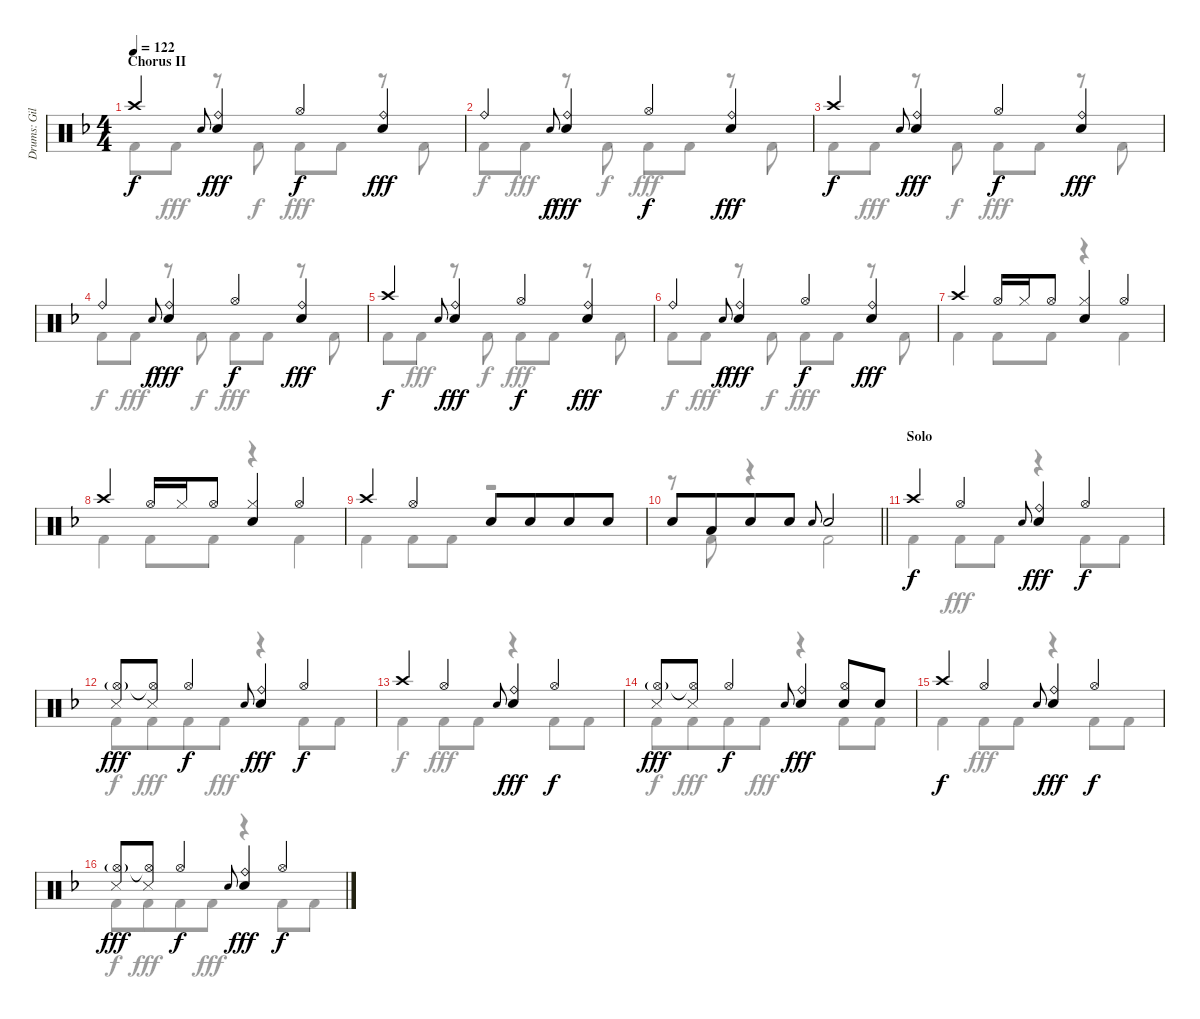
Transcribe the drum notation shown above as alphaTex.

\track ("Drums: Gil" "Drums: Gil") {instrument percussion}
\staff {score}
\articulation defaults
\voice
\ts (4 4)
\section ("" "Chorus II")
\tempo 122
\clef neutral
\ks f "Crash high (hit)".4{dy f} "Electric Snare (hit)".8{gr onbeat}
("Ride (bell)" "Snare (hit) 2").4{dy fff} "Hi-Hat (open)".4{dy f} ("Ride (bell)" "Snare (hit) 2").4{dy fff} |
"Ride (bell)".4 "Electric Snare (hit)".8{gr onbeat dy f} ("Ride (bell)" "Snare (hit) 2").4{dy fff} "Hi-Hat (open)".4{dy f} ("Ride (bell)" "Snare (hit) 2").4{dy fff} |
"Crash high (hit)".4{dy f} "Electric Snare (hit)".8{gr onbeat} ("Ride (bell)" "Snare (hit) 2").4{dy fff} "Hi-Hat (open)".4{dy f} ("Ride (bell)" "Snare (hit) 2").4{dy fff} |
"Ride (bell)".4 "Electric Snare (hit)".8{gr onbeat dy f} ("Ride (bell)" "Snare (hit) 2").4{dy fff} "Hi-Hat (open)".4{dy f} ("Ride (bell)" "Snare (hit) 2").4{dy fff} |
"Crash high (hit)".4{dy f} "Electric Snare (hit)".8{gr onbeat} ("Ride (bell)" "Snare (hit) 2").4{dy fff} "Hi-Hat (open)".4{dy f} ("Ride (bell)" "Snare (hit) 2").4{dy fff} |
"Ride (bell)".4 "Electric Snare (hit)".8{gr onbeat dy f} ("Ride (bell)" "Snare (hit) 2").4{dy fff} "Hi-Hat (open)".4{dy f} ("Ride (bell)" "Snare (hit) 2").4{dy fff} |
"Crash high (hit)".4 "Hi-Hat (open)".16 "Hi-Hat (closed)".16 "Hi-Hat (open)".8 ("Hi-Hat (closed)" "Snare (hit) 2").4 "Hi-Hat (open)".4 |
"Crash high (hit)".4 "Hi-Hat (open)".16 "Hi-Hat (closed)".16 "Hi-Hat (open)".8 ("Hi-Hat (closed)" "Snare (hit) 2").4 "Hi-Hat (open)".4 |
"Crash high (hit)".4 "Hi-Hat (open)".4 "Snare (hit) 2".8 "Snare (hit) 2".8{beam merge} "Snare (hit) 2".8 "Snare (hit) 2".8 |
\barLineRight lightlight "Snare (hit) 2".8 "Low Tom (hit)".8{beam merge} "Snare (hit) 2".8 "Snare (hit) 2".8 "Electric Snare (hit)".8{gr onbeat} "Snare (hit) 2".2
|
\section ("" "Solo")
"Crash high (hit)".4{dy f} "Hi-Hat (open)".4 "Electric Snare (hit)".8{gr onbeat} ("Ride (bell)" "Snare (hit) 2").4{dy fff} "Hi-Hat (open)".4{dy f} |
("Hi-Hat (open)"{g} "Snare (side stick) 3").8{dy fff} ("Hi-Hat (open)"{t} "Snare (side stick) 3").8 "Hi-Hat (open)".4{dy f} "Electric Snare (hit)".8{gr onbeat} ("Ride (bell)" "Snare (hit) 2").4{dy fff} "Hi-Hat (open)".4{dy f} |
"Crash high (hit)".4 "Hi-Hat (open)".4 "Electric Snare (hit)".8{gr onbeat} ("Ride (bell)" "Snare (hit) 2").4{dy fff} "Hi-Hat (open)".4{dy f} |
("Hi-Hat (open)"{g} "Snare (side stick) 3").8{dy fff} ("Hi-Hat (open)"{t} "Snare (side stick) 3").8 "Hi-Hat (open)".4{dy f} "Electric Snare (hit)".8{gr onbeat} ("Ride (bell)" "Snare (hit) 2").4{dy fff} ("Hi-Hat (open)" "Snare (hit) 2").8 "Snare (hit) 2".8 |
"Crash high (hit)".4{dy f} "Hi-Hat (open)".4 "Electric Snare (hit)".8{gr onbeat} ("Ride (bell)" "Snare (hit) 2").4{dy fff} "Hi-Hat (open)".4{dy f} |
("Hi-Hat (open)"{g} "Snare (side stick) 3").8{dy fff} ("Hi-Hat (open)"{t} "Snare (side stick) 3").8 "Hi-Hat (open)".4{dy f} "Electric Snare (hit)".8{gr onbeat} ("Ride (bell)" "Snare (hit) 2").4{dy fff} "Hi-Hat (open)".4{dy f}
\voice
\clef neutral
\ottava regular
\simile none
\ks f "Kick (hit) 2".8{dy f} "Kick (hit) 2".8{dy fff}
r.8 "Kick (hit) 2".8{dy f} "Kick (hit) 2".8{dy fff} "Kick (hit) 2".8 r.8 "Kick (hit) 2".8 |
"Kick (hit) 2".8{dy f} "Kick (hit) 2".8{dy fff} r.8 "Kick (hit) 2".8{dy f} "Kick (hit) 2".8{dy fff} "Kick (hit) 2".8 r.8 "Kick (hit) 2".8 |
"Kick (hit) 2".8{dy f} "Kick (hit) 2".8{dy fff} r.8 "Kick (hit) 2".8{dy f} "Kick (hit) 2".8{dy fff} "Kick (hit) 2".8 r.8 "Kick (hit) 2".8 |
"Kick (hit) 2".8{dy f} "Kick (hit) 2".8{dy fff} r.8 "Kick (hit) 2".8{dy f} "Kick (hit) 2".8{dy fff} "Kick (hit) 2".8 r.8 "Kick (hit) 2".8 |
"Kick (hit) 2".8{dy f} "Kick (hit) 2".8{dy fff} r.8 "Kick (hit) 2".8{dy f} "Kick (hit) 2".8{dy fff} "Kick (hit) 2".8 r.8 "Kick (hit) 2".8 |
"Kick (hit) 2".8{dy f} "Kick (hit) 2".8{dy fff} r.8 "Kick (hit) 2".8{dy f} "Kick (hit) 2".8{dy fff} "Kick (hit) 2".8 r.8 "Kick (hit) 2".8 |
"Kick (hit) 2".4 "Kick (hit) 2".8 "Kick (hit) 2".8 r.4 "Kick (hit) 2".4 |
"Kick (hit) 2".4 "Kick (hit) 2".8 "Kick (hit) 2".8 r.4 "Kick (hit) 2".4 |
"Kick (hit) 2".4 "Kick (hit) 2".8 "Kick (hit) 2".8 r.2 |
\barLineRight lightlight
r.8 "Kick (hit) 2".8 r.4 "Kick (hit) 2".2 |
"Kick (hit) 2".4{dy f} "Kick (hit) 2".8{dy fff} "Kick (hit) 2".8 r.4 "Kick (hit) 2".8 "Kick (hit) 2".8 |
"Kick (hit) 2".8{dy f} "Kick (hit) 2".8{dy fff beam merge} "Kick (hit) 2".8{dy f} "Kick (hit) 2".8{dy fff} r.4 "Kick (hit) 2".8 "Kick (hit) 2".8 |
"Kick (hit) 2".4{dy f} "Kick (hit) 2".8{dy fff} "Kick (hit) 2".8 r.4 "Kick (hit) 2".8 "Kick (hit) 2".8 |
"Kick (hit) 2".8{dy f} "Kick (hit) 2".8{dy fff beam merge} "Kick (hit) 2".8{dy f} "Kick (hit) 2".8{dy fff} r.4 "Kick (hit) 2".8 "Kick (hit) 2".8 |
"Kick (hit) 2".4{dy f} "Kick (hit) 2".8{dy fff} "Kick (hit) 2".8 r.4 "Kick (hit) 2".8 "Kick (hit) 2".8 |
"Kick (hit) 2".8{dy f} "Kick (hit) 2".8{dy fff beam merge} "Kick (hit) 2".8{dy f} "Kick (hit) 2".8{dy fff} r.4 "Kick (hit) 2".8 "Kick (hit) 2".8
